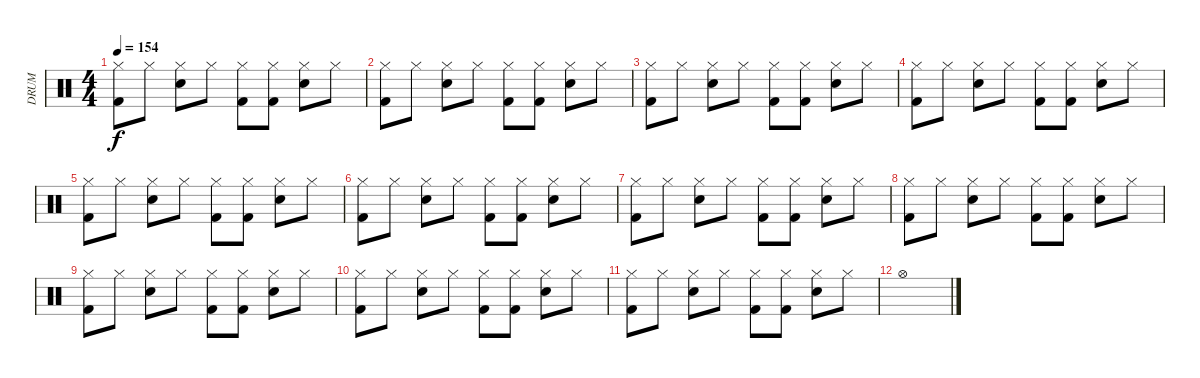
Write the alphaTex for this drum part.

\track ("DRUM" "DRUM") {instrument percussion}
\staff {score}
\articulation defaults
\ts (4 4)
\tempo 154
\clef neutral
\ks c
("Hi-Hat (closed)" "Kick (hit) 2").8{dy f} "Hi-Hat (closed)".8 ("Hi-Hat (closed)" "Snare (hit) 2").8 "Hi-Hat (closed)".8 ("Hi-Hat (closed)" "Kick (hit) 2").8 ("Hi-Hat (closed)" "Kick (hit) 2").8 ("Hi-Hat (closed)" "Snare (hit) 2").8 "Hi-Hat (closed)".8 |
("Hi-Hat (closed)" "Kick (hit) 2").8 "Hi-Hat (closed)".8 ("Hi-Hat (closed)" "Snare (hit) 2").8 "Hi-Hat (closed)".8 ("Hi-Hat (closed)" "Kick (hit) 2").8 ("Hi-Hat (closed)" "Kick (hit) 2").8 ("Hi-Hat (closed)" "Snare (hit) 2").8 "Hi-Hat (closed)".8 |
("Hi-Hat (closed)" "Kick (hit) 2").8 "Hi-Hat (closed)".8 ("Hi-Hat (closed)" "Snare (hit) 2").8 "Hi-Hat (closed)".8 ("Hi-Hat (closed)" "Kick (hit) 2").8 ("Hi-Hat (closed)" "Kick (hit) 2").8 ("Hi-Hat (closed)" "Snare (hit) 2").8 "Hi-Hat (closed)".8 |
("Hi-Hat (closed)" "Kick (hit) 2").8 "Hi-Hat (closed)".8 ("Hi-Hat (closed)" "Snare (hit) 2").8 "Hi-Hat (closed)".8 ("Hi-Hat (closed)" "Kick (hit) 2").8 ("Hi-Hat (closed)" "Kick (hit) 2").8 ("Hi-Hat (closed)" "Snare (hit) 2").8 "Hi-Hat (closed)".8 |
("Hi-Hat (closed)" "Kick (hit) 2").8 "Hi-Hat (closed)".8 ("Hi-Hat (closed)" "Snare (hit) 2").8 "Hi-Hat (closed)".8 ("Hi-Hat (closed)" "Kick (hit) 2").8 ("Hi-Hat (closed)" "Kick (hit) 2").8 ("Hi-Hat (closed)" "Snare (hit) 2").8 "Hi-Hat (closed)".8 |
("Hi-Hat (closed)" "Kick (hit) 2").8 "Hi-Hat (closed)".8 ("Hi-Hat (closed)" "Snare (hit) 2").8 "Hi-Hat (closed)".8 ("Hi-Hat (closed)" "Kick (hit) 2").8 ("Hi-Hat (closed)" "Kick (hit) 2").8 ("Hi-Hat (closed)" "Snare (hit) 2").8 "Hi-Hat (closed)".8 |
("Hi-Hat (closed)" "Kick (hit) 2").8 "Hi-Hat (closed)".8 ("Hi-Hat (closed)" "Snare (hit) 2").8 "Hi-Hat (closed)".8 ("Hi-Hat (closed)" "Kick (hit) 2").8 ("Hi-Hat (closed)" "Kick (hit) 2").8 ("Hi-Hat (closed)" "Snare (hit) 2").8 "Hi-Hat (closed)".8 |
("Hi-Hat (closed)" "Kick (hit) 2").8 "Hi-Hat (closed)".8 ("Hi-Hat (closed)" "Snare (hit) 2").8 "Hi-Hat (closed)".8 ("Hi-Hat (closed)" "Kick (hit) 2").8 ("Hi-Hat (closed)" "Kick (hit) 2").8 ("Hi-Hat (closed)" "Snare (hit) 2").8 "Hi-Hat (closed)".8 |
("Hi-Hat (closed)" "Kick (hit) 2").8 "Hi-Hat (closed)".8 ("Hi-Hat (closed)" "Snare (hit) 2").8 "Hi-Hat (closed)".8 ("Hi-Hat (closed)" "Kick (hit) 2").8 ("Hi-Hat (closed)" "Kick (hit) 2").8 ("Hi-Hat (closed)" "Snare (hit) 2").8 "Hi-Hat (closed)".8 |
("Hi-Hat (closed)" "Kick (hit) 2").8 "Hi-Hat (closed)".8 ("Hi-Hat (closed)" "Snare (hit) 2").8 "Hi-Hat (closed)".8 ("Hi-Hat (closed)" "Kick (hit) 2").8 ("Hi-Hat (closed)" "Kick (hit) 2").8 ("Hi-Hat (closed)" "Snare (hit) 2").8 "Hi-Hat (closed)".8 |
("Hi-Hat (closed)" "Kick (hit) 2").8 "Hi-Hat (closed)".8 ("Hi-Hat (closed)" "Snare (hit) 2").8 "Hi-Hat (closed)".8 ("Hi-Hat (closed)" "Kick (hit) 2").8 ("Hi-Hat (closed)" "Kick (hit) 2").8 ("Hi-Hat (closed)" "Snare (hit) 2").8 "Hi-Hat (closed)".8 |
"Hi-Hat (open)".1
